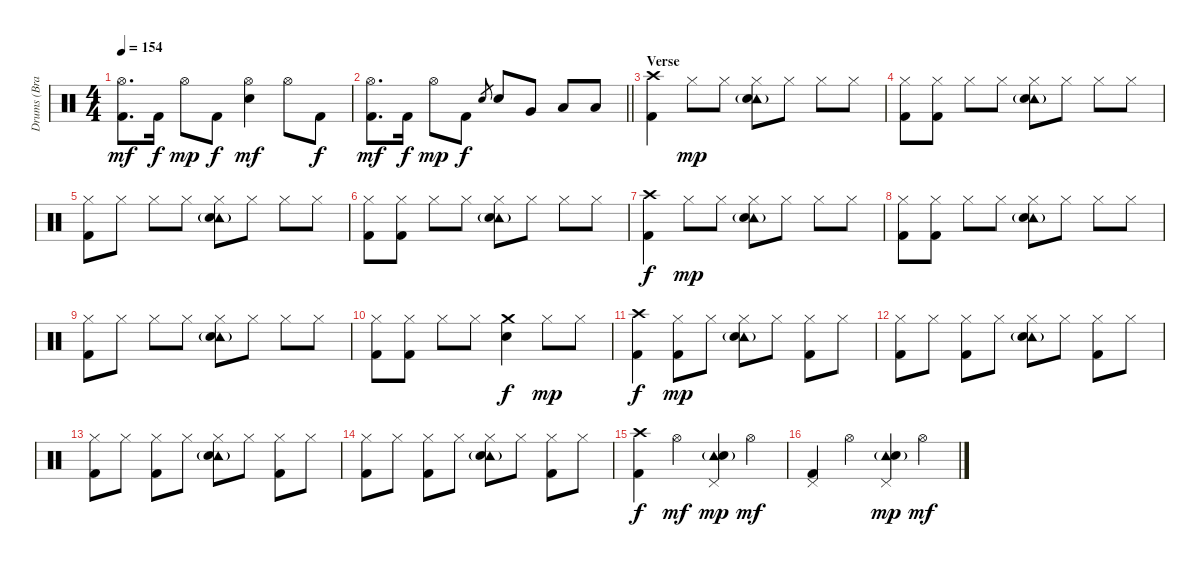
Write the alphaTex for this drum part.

\track ("Drums (Brandon Saller)" "Drums (Bra") {instrument percussion}
\staff {score}
\articulation defaults
\ts (4 4)
\tempo 154
\clef neutral
\ks c
("Hi-Hat (open)" "Kick (hit) 2").8{d dy mf} "Kick (hit) 2".16{dy f} "Hi-Hat (open)".8{dy mp} "Kick (hit) 2".8{dy f} ("Hi-Hat (open)" "Electric Snare (hit)").4{dy mf} "Hi-Hat (open)".8 "Kick (hit) 2".8{dy f} |
\barLineRight lightlight
("Hi-Hat (open)" "Kick (hit) 2").8{d dy mf} "Kick (hit) 2".16{dy f} "Hi-Hat (open)".8{dy mp} "Kick (hit) 2".8{dy f} "Electric Snare (hit)".8{gr} "Electric Snare (hit)".8 "Very Low Tom (hit)".8 "Low Floor Tom (hit)".8 "Low Floor Tom (hit)".8 |
\section ("" "Verse")
("Crash high (hit)" "Kick (hit) 2").4 "Hi-Hat (closed)".8{dy mp} "Hi-Hat (closed)".8 ("Hi-Hat (closed)" "Tambourine (hit)"{g} "Electric Snare (hit)").8 "Hi-Hat (closed)".8 "Hi-Hat (closed)".8 "Hi-Hat (closed)".8 |
("Hi-Hat (closed)" "Kick (hit) 2").8 ("Hi-Hat (closed)" "Kick (hit) 2").8 "Hi-Hat (closed)".8 "Hi-Hat (closed)".8 ("Hi-Hat (closed)" "Tambourine (hit)"{g} "Electric Snare (hit)").8 "Hi-Hat (closed)".8 "Hi-Hat (closed)".8 "Hi-Hat (closed)".8 |
("Hi-Hat (closed)" "Kick (hit) 2").8 "Hi-Hat (closed)".8 "Hi-Hat (closed)".8 "Hi-Hat (closed)".8 ("Hi-Hat (closed)" "Tambourine (hit)"{g} "Electric Snare (hit)").8 "Hi-Hat (closed)".8 "Hi-Hat (closed)".8 "Hi-Hat (closed)".8 |
("Hi-Hat (closed)" "Kick (hit) 2").8 ("Hi-Hat (closed)" "Kick (hit) 2").8 "Hi-Hat (closed)".8 "Hi-Hat (closed)".8 ("Hi-Hat (closed)" "Tambourine (hit)"{g} "Electric Snare (hit)").8 "Hi-Hat (closed)".8 "Hi-Hat (closed)".8 "Hi-Hat (closed)".8 |
("Crash high (hit)" "Kick (hit) 2").4{dy f} "Hi-Hat (closed)".8{dy mp} "Hi-Hat (closed)".8 ("Hi-Hat (closed)" "Tambourine (hit)"{g} "Electric Snare (hit)").8 "Hi-Hat (closed)".8 "Hi-Hat (closed)".8 "Hi-Hat (closed)".8 |
("Hi-Hat (closed)" "Kick (hit) 2").8 ("Hi-Hat (closed)" "Kick (hit) 2").8 "Hi-Hat (closed)".8 "Hi-Hat (closed)".8 ("Hi-Hat (closed)" "Tambourine (hit)"{g} "Electric Snare (hit)").8 "Hi-Hat (closed)".8 "Hi-Hat (closed)".8 "Hi-Hat (closed)".8 |
("Hi-Hat (closed)" "Kick (hit) 2").8 "Hi-Hat (closed)".8 "Hi-Hat (closed)".8 "Hi-Hat (closed)".8 ("Hi-Hat (closed)" "Tambourine (hit)"{g} "Electric Snare (hit)").8 "Hi-Hat (closed)".8 "Hi-Hat (closed)".8 "Hi-Hat (closed)".8 |
("Hi-Hat (closed)" "Kick (hit) 2").8 ("Hi-Hat (closed)" "Kick (hit) 2").8 "Hi-Hat (closed)".8 "Hi-Hat (closed)".8 ("Crash medium (hit)" "Electric Snare (hit)").4{dy f} "Hi-Hat (closed)".8{dy mp} "Hi-Hat (closed)".8 |
("Crash high (hit)" "Kick (hit) 2").4{dy f} ("Hi-Hat (closed)" "Kick (hit) 2").8{dy mp} "Hi-Hat (closed)".8 ("Hi-Hat (closed)" "Tambourine (hit)"{g} "Electric Snare (hit)").8 "Hi-Hat (closed)".8 ("Hi-Hat (closed)" "Kick (hit) 2").8 "Hi-Hat (closed)".8 |
("Hi-Hat (closed)" "Kick (hit) 2").8 "Hi-Hat (closed)".8 ("Hi-Hat (closed)" "Kick (hit) 2").8 "Hi-Hat (closed)".8 ("Hi-Hat (closed)" "Tambourine (hit)"{g} "Electric Snare (hit)").8 "Hi-Hat (closed)".8 ("Hi-Hat (closed)" "Kick (hit) 2").8 "Hi-Hat (closed)".8 |
("Hi-Hat (closed)" "Kick (hit) 2").8 "Hi-Hat (closed)".8 ("Hi-Hat (closed)" "Kick (hit) 2").8 "Hi-Hat (closed)".8 ("Hi-Hat (closed)" "Tambourine (hit)"{g} "Electric Snare (hit)").8 "Hi-Hat (closed)".8 ("Hi-Hat (closed)" "Kick (hit) 2").8 "Hi-Hat (closed)".8 |
("Hi-Hat (closed)" "Kick (hit) 2").8 "Hi-Hat (closed)".8 ("Hi-Hat (closed)" "Kick (hit) 2").8 "Hi-Hat (closed)".8 ("Hi-Hat (closed)" "Tambourine (hit)"{g} "Electric Snare (hit)").8 "Hi-Hat (closed)".8 ("Hi-Hat (closed)" "Kick (hit) 2").8 "Hi-Hat (closed)".8 |
("Crash high (hit)" "Kick (hit) 2").4{dy f} "Hi-Hat (open)".4{dy mf} ("Pedal Hi-Hat (hit)" "Tambourine (hit)"{g} "Electric Snare (hit)").4{dy mp} "Hi-Hat (open)".4{dy mf} |
("Pedal Hi-Hat (hit)" "Kick (hit) 2").4 "Hi-Hat (open)".4 ("Pedal Hi-Hat (hit)" "Tambourine (hit)"{g} "Electric Snare (hit)").4{dy mp} "Hi-Hat (open)".4{dy mf}
